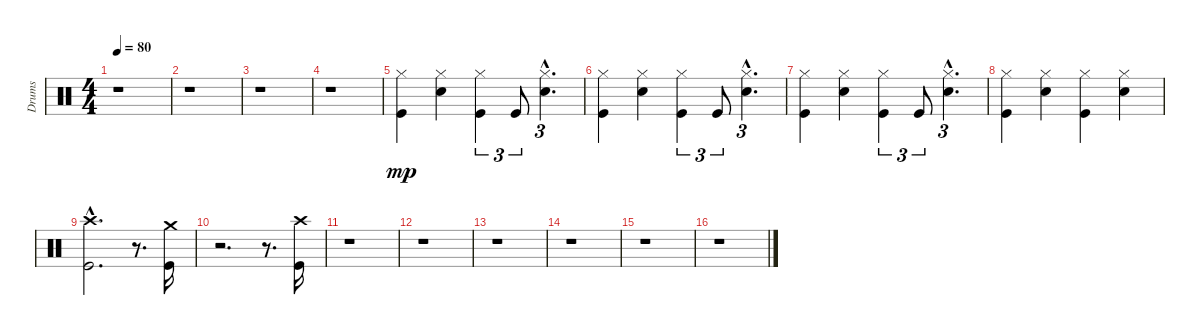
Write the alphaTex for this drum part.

\track ("Drums" "Drums") {instrument percussion}
\staff {score}
\articulation defaults
\ts (4 4)
\tempo 80
\clef neutral
\ks c
r.1{dy mp} |
r.1 |
r.1 |
r.1 |
("Hi-Hat (closed)" "Kick (hit)").4 ("Hi-Hat (closed)" "Electric Snare (hit)").4 ("Hi-Hat (closed)" "Kick (hit)").4{tu (3 2)} "Kick (hit)".8{tu (3 2)} ("Electric Snare (hit)"{hac} "Hi-Hat (closed)"{hac}).4{d tu (3 2)} |
("Kick (hit)" "Hi-Hat (closed)").4 ("Electric Snare (hit)" "Hi-Hat (closed)").4 ("Hi-Hat (closed)" "Kick (hit)").4{tu (3 2)} "Kick (hit)".8{tu (3 2)} ("Electric Snare (hit)"{hac} "Hi-Hat (closed)"{hac}).4{d tu (3 2)} |
("Kick (hit)" "Hi-Hat (closed)").4 ("Electric Snare (hit)" "Hi-Hat (closed)").4 ("Hi-Hat (closed)" "Kick (hit)").4{tu (3 2)} "Kick (hit)".8{tu (3 2)} ("Electric Snare (hit)"{hac} "Hi-Hat (closed)"{hac}).4{d tu (3 2)} |
("Hi-Hat (closed)" "Kick (hit)").4 ("Electric Snare (hit)" "Hi-Hat (closed)").4 ("Hi-Hat (closed)" "Kick (hit)").4 ("Hi-Hat (closed)" "Electric Snare (hit)").4 |
("Kick (hit)"{hac} "Crash high (hit)"{hac}).2{d} r.8{d} ("Crash medium (hit)" "Kick (hit)").16 |
r.2{d} r.8{d} ("Crash high (hit)" "Kick (hit)").16 |
r.1 |
r.1 |
r.1 |
r.1 |
r.1 |
r.1
